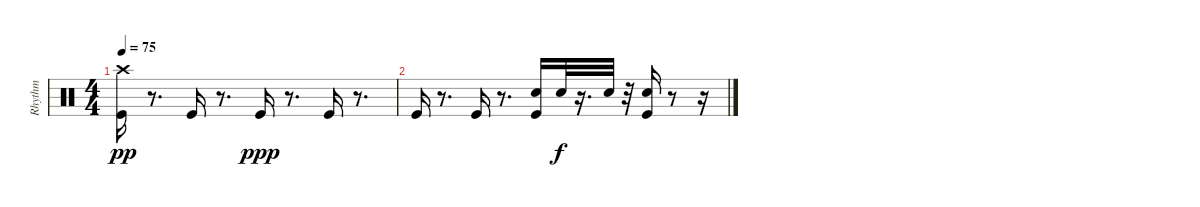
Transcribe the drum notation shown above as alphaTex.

\track ("Rhythm         " "Rhythm    ") {instrument percussion}
\staff {score}
\articulation defaults
\ts (4 4)
\tempo 75
\clef neutral
\ks c
("Crash high (hit)" "Kick (hit)").16{dy pp} r.8{d} "Kick (hit)".16 r.8{d} "Kick (hit)".16{dy ppp} r.8{d} "Kick (hit)".16 r.8{d} |
"Kick (hit)".16 r.8{d} "Kick (hit)".16 r.8{d} ("Snare (hit) 2" "Kick (hit)").16 "Snare (hit) 2".32{dy f} r.16{d} "Snare (hit) 2".32 r.32 ("Snare (hit) 2" "Kick (hit)").16 r.8 r.16
